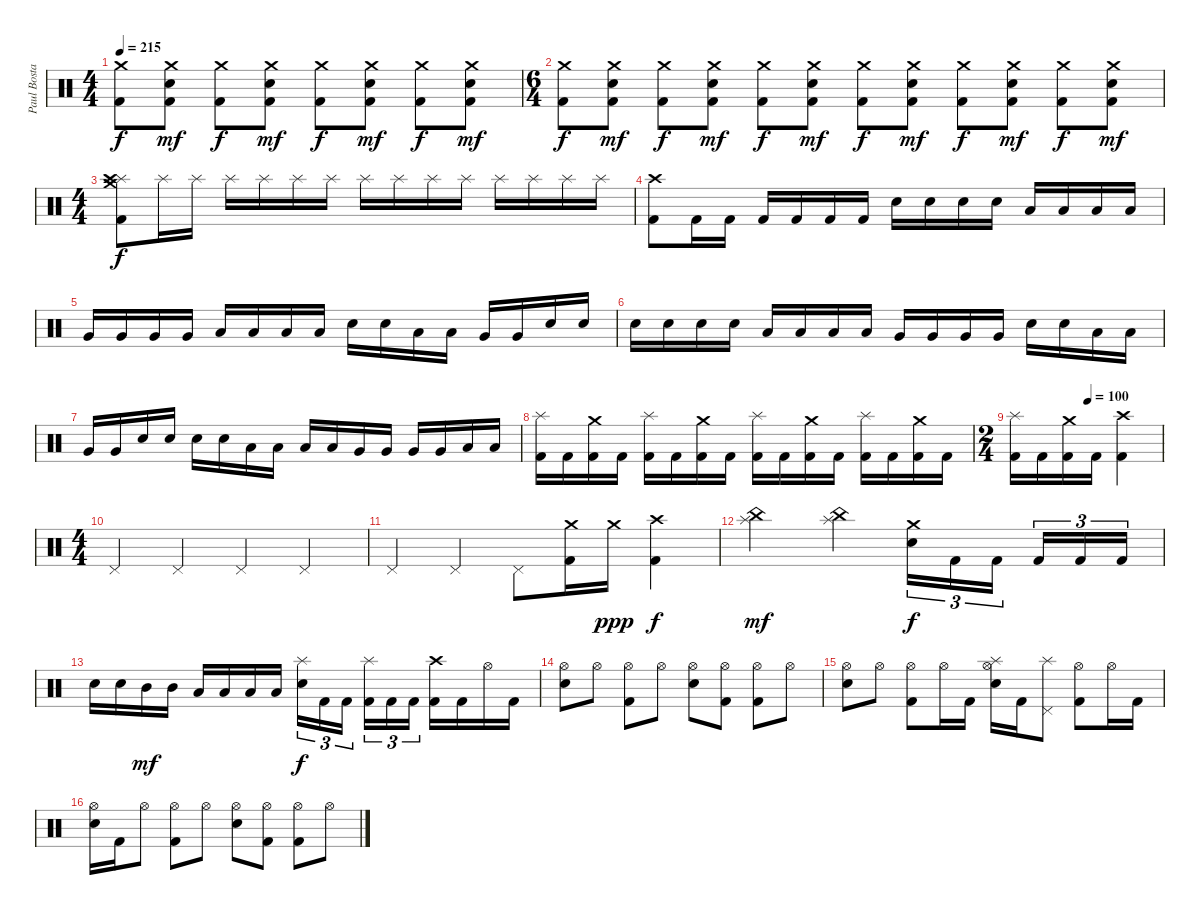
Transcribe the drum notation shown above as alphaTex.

\track ("Paul Bostaph" "Paul Bosta") {instrument percussion}
\staff {score}
\articulation defaults
\ts (4 4)
\tempo 215
\clef neutral
\ks c
("Kick (hit) 2" "Crash medium (hit)").8{dy f} ("Kick (hit) 2" "Crash medium (hit)" "Electric Snare (hit)").8{dy mf} ("Kick (hit) 2" "Crash medium (hit)").8{dy f} ("Kick (hit) 2" "Crash medium (hit)" "Electric Snare (hit)").8{dy mf} ("Kick (hit) 2" "Crash medium (hit)").8{dy f} ("Kick (hit) 2" "Crash medium (hit)" "Electric Snare (hit)").8{dy mf} ("Kick (hit) 2" "Crash medium (hit)").8{dy f} ("Kick (hit) 2" "Crash medium (hit)" "Electric Snare (hit)").8{dy mf} |
\ts (6 4)
("Kick (hit) 2" "Crash medium (hit)").8{dy f} ("Kick (hit) 2" "Crash medium (hit)" "Electric Snare (hit)").8{dy mf} ("Kick (hit) 2" "Crash medium (hit)").8{dy f} ("Kick (hit) 2" "Crash medium (hit)" "Electric Snare (hit)").8{dy mf} ("Kick (hit) 2" "Crash medium (hit)").8{dy f} ("Kick (hit) 2" "Crash medium (hit)" "Electric Snare (hit)").8{dy mf} ("Kick (hit) 2" "Crash medium (hit)").8{dy f} ("Kick (hit) 2" "Crash medium (hit)" "Electric Snare (hit)").8{dy mf} ("Kick (hit) 2" "Crash medium (hit)").8{dy f} ("Kick (hit) 2" "Crash medium (hit)" "Electric Snare (hit)").8{dy mf} ("Kick (hit) 2" "Crash medium (hit)").8{dy f} ("Kick (hit) 2" "Crash medium (hit)" "Electric Snare (hit)").8{dy mf} |
\ts (4 4)
("Splash (hit)" "Crash medium (hit)" "Kick (hit) 2" "Crash high (hit)").8{dy f} "Splash (hit)".16 "Splash (hit)".16 "Splash (hit)".16 "Splash (hit)".16 "Splash (hit)".16 "Splash (hit)".16 "Splash (hit)".16 "Splash (hit)".16 "Splash (hit)".16 "Splash (hit)".16 "Splash (hit)".16 "Splash (hit)".16 "Splash (hit)".16 "Splash (hit)".16 |
("Crash high (hit)" "Kick (hit) 2").8 "Kick (hit) 2".16 "Kick (hit) 2".16 "Kick (hit) 2".16 "Kick (hit) 2".16 "Kick (hit) 2".16 "Kick (hit) 2".16 "Electric Snare (hit)".16 "Electric Snare (hit)".16 "Electric Snare (hit)".16 "Electric Snare (hit)".16 "Low Tom (hit)".16 "Low Tom (hit)".16 "Low Tom (hit)".16 "Low Tom (hit)".16 |
"Very Low Tom (hit)".16 "Very Low Tom (hit)".16 "Very Low Tom (hit)".16 "Very Low Tom (hit)".16 "Low Floor Tom (hit)".16 "Low Floor Tom (hit)".16 "Low Floor Tom (hit)".16 "Low Floor Tom (hit)".16 "Electric Snare (hit)".16 "Electric Snare (hit)".16 "Low Tom (hit)".16 "Low Tom (hit)".16 "Very Low Tom (hit)".16 "Very Low Tom (hit)".16 "Electric Snare (hit)".16 "Electric Snare (hit)".16 |
"Electric Snare (hit)".16 "Electric Snare (hit)".16 "Electric Snare (hit)".16 "Electric Snare (hit)".16 "Low Tom (hit)".16 "Low Tom (hit)".16 "Low Tom (hit)".16 "Low Tom (hit)".16 "Very Low Tom (hit)".16 "Very Low Tom (hit)".16 "Very Low Tom (hit)".16 "Very Low Tom (hit)".16 "Electric Snare (hit)".16 "Electric Snare (hit)".16 "Low Tom (hit)".16 "Low Tom (hit)".16 |
"Very Low Tom (hit)".16 "Very Low Tom (hit)".16 "Electric Snare (hit)".16 "Electric Snare (hit)".16 "Electric Snare (hit)".16 "Electric Snare (hit)".16 "Low Tom (hit)".16 "Low Tom (hit)".16 "Low Tom (hit)".16 "Low Tom (hit)".16 "Very Low Tom (hit)".16 "Very Low Tom (hit)".16 "Very Low Tom (hit)".16 "Very Low Tom (hit)".16 "Low Floor Tom (hit)".16 "Low Floor Tom (hit)".16 |
("Splash (hit)" "Kick (hit) 2").16 "Kick (hit) 2".16 ("Crash medium (hit)" "Kick (hit) 2").16 "Kick (hit) 2".16 ("Splash (hit)" "Kick (hit) 2").16 "Kick (hit) 2".16 ("Crash medium (hit)" "Kick (hit) 2").16 "Kick (hit) 2".16 ("Splash (hit)" "Kick (hit) 2").16 "Kick (hit) 2".16 ("Crash medium (hit)" "Kick (hit) 2").16 "Kick (hit) 2".16 ("Splash (hit)" "Kick (hit) 2").16 "Kick (hit) 2".16 ("Crash medium (hit)" "Kick (hit) 2").16 "Kick (hit) 2".16 |
\ts (2 4)
\tempo (100 0.5)
("Splash (hit)" "Kick (hit) 2").16 "Kick (hit) 2".16 ("Crash medium (hit)" "Kick (hit) 2").16 "Kick (hit) 2".16 ("Crash high (hit)" "Kick (hit) 2").4 |
\ts (4 4)
"Pedal Hi-Hat (hit)".4 "Pedal Hi-Hat (hit)".4 "Pedal Hi-Hat (hit)".4 "Pedal Hi-Hat (hit)".4 |
"Pedal Hi-Hat (hit)".4 "Pedal Hi-Hat (hit)".4 "Pedal Hi-Hat (hit)".8 ("Kick (hit) 2" "Crash medium (hit)").16 "Crash medium (hit)".16{dy ppp} ("Kick (hit) 2" "Crash high (hit)").4{dy f} |
("Splash (hit)" "China (hit)").2{dy mf} ("Splash (hit)" "China (hit)").4 ("Electric Snare (hit)" "Crash medium (hit)").16{tu (3 2) dy f} "Kick (hit) 2".16{tu (3 2)} "Kick (hit) 2".16{tu (3 2)} "Kick (hit) 2".16{tu (3 2)} "Kick (hit) 2".16{tu (3 2)} "Kick (hit) 2".16{tu (3 2)} |
"Electric Snare (hit)".16 "Electric Snare (hit)".16 "Mid Tom (hit)".16{dy mf} "Mid Tom (hit)".16 "Low Tom (hit)".16 "Low Tom (hit)".16 "Low Tom (hit)".16 "Low Tom (hit)".16 ("Electric Snare (hit)" "Splash (hit)").16{tu (3 2) dy f} "Kick (hit) 2".16{tu (3 2)} "Kick (hit) 2".16{tu (3 2)} ("Kick (hit) 2" "Splash (hit)").16{tu (3 2)} "Kick (hit) 2".16{tu (3 2)} "Kick (hit) 2".16{tu (3 2)} ("Kick (hit) 2" "Crash high (hit)").16 "Kick (hit) 2".16 "Hi-Hat (open)".16 "Kick (hit) 2".16 |
("Hi-Hat (open)" "Electric Snare (hit)").8 "Hi-Hat (open)".8 ("Hi-Hat (open)" "Kick (hit) 2").8 "Hi-Hat (open)".8 ("Hi-Hat (open)" "Electric Snare (hit)").8 ("Hi-Hat (open)" "Kick (hit) 2").8 ("Hi-Hat (open)" "Kick (hit) 2").8 "Hi-Hat (open)".8 |
("Hi-Hat (open)" "Electric Snare (hit)").8 "Hi-Hat (open)".8 ("Hi-Hat (open)" "Kick (hit) 2").8 "Hi-Hat (open)".16 "Kick (hit) 2".16 ("Splash (hit)" "Hi-Hat (open)" "Electric Snare (hit)").16 "Kick (hit) 2".16 ("Splash (hit)" "Pedal Hi-Hat (hit)").8 ("Hi-Hat (open)" "Kick (hit) 2").8 "Hi-Hat (open)".16 "Kick (hit) 2".16 |
("Hi-Hat (open)" "Electric Snare (hit)").16 "Kick (hit) 2".16 "Hi-Hat (open)".8 ("Hi-Hat (open)" "Kick (hit) 2").8 "Hi-Hat (open)".8 ("Hi-Hat (open)" "Electric Snare (hit)").8 ("Hi-Hat (open)" "Kick (hit) 2").8 ("Hi-Hat (open)" "Kick (hit) 2").8 "Hi-Hat (open)".8
